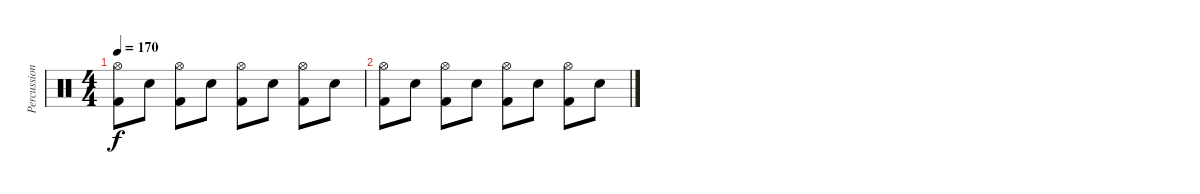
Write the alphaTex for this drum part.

\track ("Percussion" "Percussion") {instrument percussion}
\staff {score}
\articulation defaults
\ts (4 4)
\tempo 170
\clef neutral
\ks c
("Hi-Hat (open)" "Kick (hit) 2").8{dy f} "Snare (hit) 2".8 ("Hi-Hat (open)" "Kick (hit) 2").8 "Snare (hit) 2".8 ("Hi-Hat (open)" "Kick (hit) 2").8 "Snare (hit) 2".8 ("Hi-Hat (open)" "Kick (hit) 2").8 "Snare (hit) 2".8 |
("Hi-Hat (open)" "Kick (hit) 2").8 "Snare (hit) 2".8 ("Hi-Hat (open)" "Kick (hit) 2").8 "Snare (hit) 2".8 ("Hi-Hat (open)" "Kick (hit) 2").8 "Snare (hit) 2".8 ("Hi-Hat (open)" "Kick (hit) 2").8 "Snare (hit) 2".8
